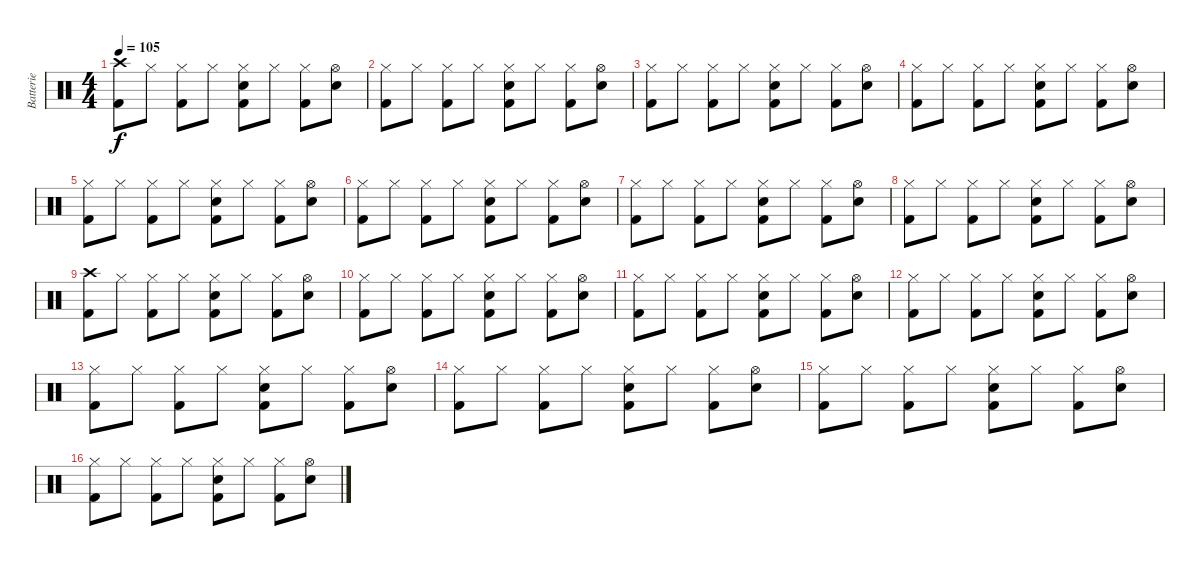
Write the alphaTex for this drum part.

\track ("Batterie" "Batterie") {instrument percussion}
\staff {score}
\articulation defaults
\ts (4 4)
\tempo 105
\clef neutral
\ks c
("Crash high (hit)" "Kick (hit) 2").8{dy f} "Hi-Hat (closed)".8 ("Hi-Hat (closed)" "Kick (hit) 2").8 "Hi-Hat (closed)".8 ("Hi-Hat (closed)" "Snare (hit) 2" "Kick (hit) 2").8 "Hi-Hat (closed)".8 ("Hi-Hat (closed)" "Kick (hit) 2").8 ("Hi-Hat (open)" "Snare (hit) 2").8 |
("Hi-Hat (closed)" "Kick (hit) 2").8 "Hi-Hat (closed)".8 ("Hi-Hat (closed)" "Kick (hit) 2").8 "Hi-Hat (closed)".8 ("Hi-Hat (closed)" "Snare (hit) 2" "Kick (hit) 2").8 "Hi-Hat (closed)".8 ("Hi-Hat (closed)" "Kick (hit) 2").8 ("Hi-Hat (open)" "Snare (hit) 2").8 |
("Hi-Hat (closed)" "Kick (hit) 2").8 "Hi-Hat (closed)".8 ("Hi-Hat (closed)" "Kick (hit) 2").8 "Hi-Hat (closed)".8 ("Hi-Hat (closed)" "Snare (hit) 2" "Kick (hit) 2").8 "Hi-Hat (closed)".8 ("Hi-Hat (closed)" "Kick (hit) 2").8 ("Hi-Hat (open)" "Snare (hit) 2").8 |
("Hi-Hat (closed)" "Kick (hit) 2").8 "Hi-Hat (closed)".8 ("Hi-Hat (closed)" "Kick (hit) 2").8 "Hi-Hat (closed)".8 ("Hi-Hat (closed)" "Snare (hit) 2" "Kick (hit) 2").8 "Hi-Hat (closed)".8 ("Hi-Hat (closed)" "Kick (hit) 2").8 ("Hi-Hat (open)" "Snare (hit) 2").8 |
("Hi-Hat (closed)" "Kick (hit) 2").8 "Hi-Hat (closed)".8 ("Hi-Hat (closed)" "Kick (hit) 2").8 "Hi-Hat (closed)".8 ("Hi-Hat (closed)" "Snare (hit) 2" "Kick (hit) 2").8 "Hi-Hat (closed)".8 ("Hi-Hat (closed)" "Kick (hit) 2").8 ("Hi-Hat (open)" "Snare (hit) 2").8 |
("Hi-Hat (closed)" "Kick (hit) 2").8 "Hi-Hat (closed)".8 ("Hi-Hat (closed)" "Kick (hit) 2").8 "Hi-Hat (closed)".8 ("Hi-Hat (closed)" "Snare (hit) 2" "Kick (hit) 2").8 "Hi-Hat (closed)".8 ("Hi-Hat (closed)" "Kick (hit) 2").8 ("Hi-Hat (open)" "Snare (hit) 2").8 |
("Hi-Hat (closed)" "Kick (hit) 2").8 "Hi-Hat (closed)".8 ("Hi-Hat (closed)" "Kick (hit) 2").8 "Hi-Hat (closed)".8 ("Hi-Hat (closed)" "Snare (hit) 2" "Kick (hit) 2").8 "Hi-Hat (closed)".8 ("Hi-Hat (closed)" "Kick (hit) 2").8 ("Hi-Hat (open)" "Snare (hit) 2").8 |
("Hi-Hat (closed)" "Kick (hit) 2").8 "Hi-Hat (closed)".8 ("Hi-Hat (closed)" "Kick (hit) 2").8 "Hi-Hat (closed)".8 ("Hi-Hat (closed)" "Snare (hit) 2" "Kick (hit) 2").8 "Hi-Hat (closed)".8 ("Hi-Hat (closed)" "Kick (hit) 2").8 ("Hi-Hat (open)" "Snare (hit) 2").8 |
("Crash high (hit)" "Kick (hit) 2").8 "Hi-Hat (closed)".8 ("Hi-Hat (closed)" "Kick (hit) 2").8 "Hi-Hat (closed)".8 ("Hi-Hat (closed)" "Snare (hit) 2" "Kick (hit) 2").8 "Hi-Hat (closed)".8 ("Hi-Hat (closed)" "Kick (hit) 2").8 ("Hi-Hat (open)" "Snare (hit) 2").8 |
("Hi-Hat (closed)" "Kick (hit) 2").8 "Hi-Hat (closed)".8 ("Hi-Hat (closed)" "Kick (hit) 2").8 "Hi-Hat (closed)".8 ("Hi-Hat (closed)" "Snare (hit) 2" "Kick (hit) 2").8 "Hi-Hat (closed)".8 ("Hi-Hat (closed)" "Kick (hit) 2").8 ("Hi-Hat (open)" "Snare (hit) 2").8 |
("Hi-Hat (closed)" "Kick (hit) 2").8 "Hi-Hat (closed)".8 ("Hi-Hat (closed)" "Kick (hit) 2").8 "Hi-Hat (closed)".8 ("Hi-Hat (closed)" "Snare (hit) 2" "Kick (hit) 2").8 "Hi-Hat (closed)".8 ("Hi-Hat (closed)" "Kick (hit) 2").8 ("Hi-Hat (open)" "Snare (hit) 2").8 |
("Hi-Hat (closed)" "Kick (hit) 2").8 "Hi-Hat (closed)".8 ("Hi-Hat (closed)" "Kick (hit) 2").8 "Hi-Hat (closed)".8 ("Hi-Hat (closed)" "Snare (hit) 2" "Kick (hit) 2").8 "Hi-Hat (closed)".8 ("Hi-Hat (closed)" "Kick (hit) 2").8 ("Hi-Hat (open)" "Snare (hit) 2").8 |
("Hi-Hat (closed)" "Kick (hit) 2").8 "Hi-Hat (closed)".8 ("Hi-Hat (closed)" "Kick (hit) 2").8 "Hi-Hat (closed)".8 ("Hi-Hat (closed)" "Snare (hit) 2" "Kick (hit) 2").8 "Hi-Hat (closed)".8 ("Hi-Hat (closed)" "Kick (hit) 2").8 ("Hi-Hat (open)" "Snare (hit) 2").8 |
("Hi-Hat (closed)" "Kick (hit) 2").8 "Hi-Hat (closed)".8 ("Hi-Hat (closed)" "Kick (hit) 2").8 "Hi-Hat (closed)".8 ("Hi-Hat (closed)" "Snare (hit) 2" "Kick (hit) 2").8 "Hi-Hat (closed)".8 ("Hi-Hat (closed)" "Kick (hit) 2").8 ("Hi-Hat (open)" "Snare (hit) 2").8 |
("Hi-Hat (closed)" "Kick (hit) 2").8 "Hi-Hat (closed)".8 ("Hi-Hat (closed)" "Kick (hit) 2").8 "Hi-Hat (closed)".8 ("Hi-Hat (closed)" "Snare (hit) 2" "Kick (hit) 2").8 "Hi-Hat (closed)".8 ("Hi-Hat (closed)" "Kick (hit) 2").8 ("Hi-Hat (open)" "Snare (hit) 2").8 |
("Hi-Hat (closed)" "Kick (hit) 2").8 "Hi-Hat (closed)".8 ("Hi-Hat (closed)" "Kick (hit) 2").8 "Hi-Hat (closed)".8 ("Hi-Hat (closed)" "Snare (hit) 2" "Kick (hit) 2").8 "Hi-Hat (closed)".8 ("Hi-Hat (closed)" "Kick (hit) 2").8 ("Hi-Hat (open)" "Snare (hit) 2").8
